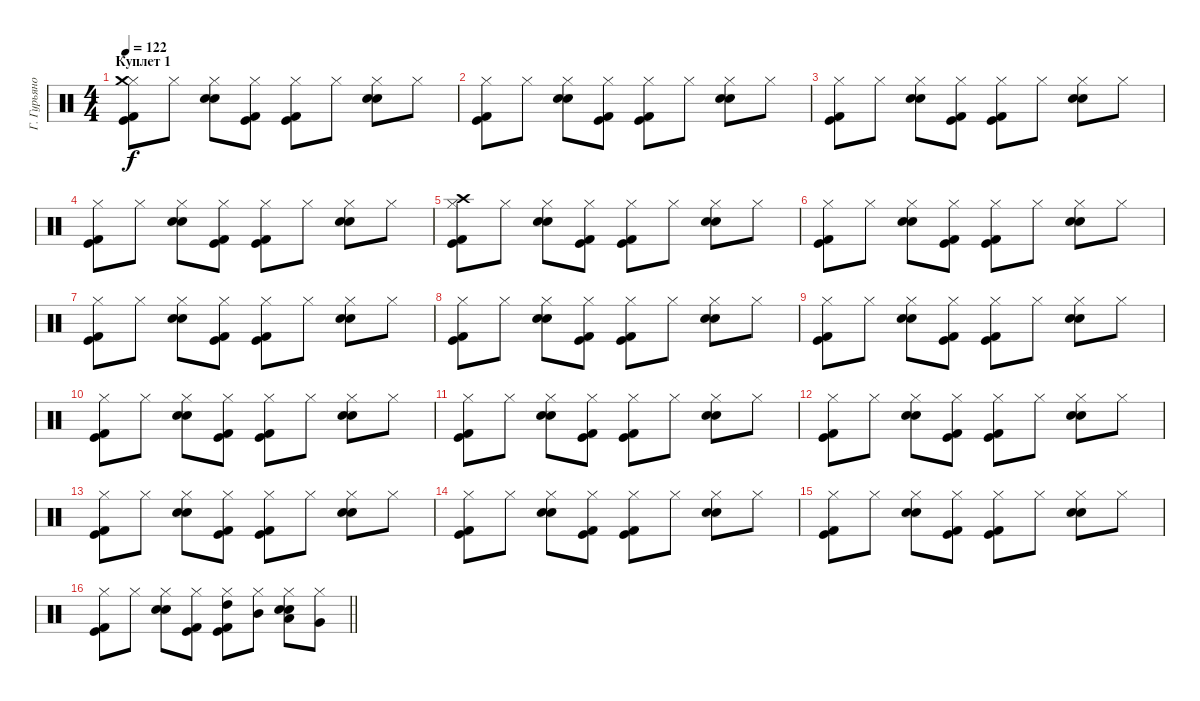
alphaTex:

\track ("Г. Гурьянов" "Г. Гурьяно") {instrument percussion}
\staff
\articulation defaults
\ts (4 4)
\section ("" "Куплет 1")
\tempo 122
\clef neutral
\ks c
("Hi-Hat (closed)" "Crash medium (hit)" "Kick (hit)" "Kick (hit) 2").8{dy f} "Hi-Hat (closed)".8 ("Hi-Hat (closed)" "Electric Snare (hit)" "Snare (hit) 2").8 ("Hi-Hat (closed)" "Kick (hit)" "Kick (hit) 2").8 ("Hi-Hat (closed)" "Kick (hit)" "Kick (hit) 2").8 "Hi-Hat (closed)".8 ("Hi-Hat (closed)" "Electric Snare (hit)" "Snare (hit) 2").8 "Hi-Hat (closed)".8 |
("Hi-Hat (closed)" "Kick (hit)" "Kick (hit) 2").8 "Hi-Hat (closed)".8 ("Hi-Hat (closed)" "Electric Snare (hit)" "Snare (hit) 2").8 ("Hi-Hat (closed)" "Kick (hit)" "Kick (hit) 2").8 ("Hi-Hat (closed)" "Kick (hit)" "Kick (hit) 2").8 "Hi-Hat (closed)".8 ("Hi-Hat (closed)" "Electric Snare (hit)" "Snare (hit) 2").8 "Hi-Hat (closed)".8 |
("Hi-Hat (closed)" "Kick (hit)" "Kick (hit) 2").8 "Hi-Hat (closed)".8 ("Hi-Hat (closed)" "Electric Snare (hit)" "Snare (hit) 2").8 ("Hi-Hat (closed)" "Kick (hit)" "Kick (hit) 2").8 ("Hi-Hat (closed)" "Kick (hit)" "Kick (hit) 2").8 "Hi-Hat (closed)".8 ("Hi-Hat (closed)" "Electric Snare (hit)" "Snare (hit) 2").8 "Hi-Hat (closed)".8 |
("Hi-Hat (closed)" "Kick (hit)" "Kick (hit) 2").8 "Hi-Hat (closed)".8 ("Hi-Hat (closed)" "Electric Snare (hit)" "Snare (hit) 2").8 ("Hi-Hat (closed)" "Kick (hit)" "Kick (hit) 2").8 ("Hi-Hat (closed)" "Kick (hit)" "Kick (hit) 2").8 "Hi-Hat (closed)".8 ("Hi-Hat (closed)" "Electric Snare (hit)" "Snare (hit) 2").8 "Hi-Hat (closed)".8 |
("Hi-Hat (closed)" "Crash high (hit)" "Kick (hit)" "Kick (hit) 2").8 "Hi-Hat (closed)".8 ("Hi-Hat (closed)" "Electric Snare (hit)" "Snare (hit) 2").8 ("Hi-Hat (closed)" "Kick (hit)" "Kick (hit) 2").8 ("Hi-Hat (closed)" "Kick (hit)" "Kick (hit) 2").8 "Hi-Hat (closed)".8 ("Hi-Hat (closed)" "Electric Snare (hit)" "Snare (hit) 2").8 "Hi-Hat (closed)".8 |
("Hi-Hat (closed)" "Kick (hit)" "Kick (hit) 2").8 "Hi-Hat (closed)".8 ("Hi-Hat (closed)" "Electric Snare (hit)" "Snare (hit) 2").8 ("Hi-Hat (closed)" "Kick (hit)" "Kick (hit) 2").8 ("Hi-Hat (closed)" "Kick (hit)" "Kick (hit) 2").8 "Hi-Hat (closed)".8 ("Hi-Hat (closed)" "Electric Snare (hit)" "Snare (hit) 2").8 "Hi-Hat (closed)".8 |
("Hi-Hat (closed)" "Kick (hit)" "Kick (hit) 2").8 "Hi-Hat (closed)".8 ("Hi-Hat (closed)" "Electric Snare (hit)" "Snare (hit) 2").8 ("Hi-Hat (closed)" "Kick (hit)" "Kick (hit) 2").8 ("Hi-Hat (closed)" "Kick (hit)" "Kick (hit) 2").8 "Hi-Hat (closed)".8 ("Hi-Hat (closed)" "Electric Snare (hit)" "Snare (hit) 2").8 "Hi-Hat (closed)".8 |
("Hi-Hat (closed)" "Kick (hit)" "Kick (hit) 2").8 "Hi-Hat (closed)".8 ("Hi-Hat (closed)" "Electric Snare (hit)" "Snare (hit) 2").8 ("Hi-Hat (closed)" "Kick (hit)" "Kick (hit) 2").8 ("Hi-Hat (closed)" "Kick (hit)" "Kick (hit) 2").8 "Hi-Hat (closed)".8 ("Hi-Hat (closed)" "Electric Snare (hit)" "Snare (hit) 2").8 "Hi-Hat (closed)".8 |
("Hi-Hat (closed)" "Kick (hit)" "Kick (hit) 2").8 "Hi-Hat (closed)".8 ("Hi-Hat (closed)" "Electric Snare (hit)" "Snare (hit) 2").8 ("Hi-Hat (closed)" "Kick (hit)" "Kick (hit) 2").8 ("Hi-Hat (closed)" "Kick (hit)" "Kick (hit) 2").8 "Hi-Hat (closed)".8 ("Hi-Hat (closed)" "Electric Snare (hit)" "Snare (hit) 2").8 "Hi-Hat (closed)".8 |
("Hi-Hat (closed)" "Kick (hit)" "Kick (hit) 2").8 "Hi-Hat (closed)".8 ("Hi-Hat (closed)" "Electric Snare (hit)" "Snare (hit) 2").8 ("Hi-Hat (closed)" "Kick (hit)" "Kick (hit) 2").8 ("Hi-Hat (closed)" "Kick (hit)" "Kick (hit) 2").8 "Hi-Hat (closed)".8 ("Hi-Hat (closed)" "Electric Snare (hit)" "Snare (hit) 2").8 "Hi-Hat (closed)".8 |
("Hi-Hat (closed)" "Kick (hit)" "Kick (hit) 2").8 "Hi-Hat (closed)".8 ("Hi-Hat (closed)" "Electric Snare (hit)" "Snare (hit) 2").8 ("Hi-Hat (closed)" "Kick (hit)" "Kick (hit) 2").8 ("Hi-Hat (closed)" "Kick (hit)" "Kick (hit) 2").8 "Hi-Hat (closed)".8 ("Hi-Hat (closed)" "Electric Snare (hit)" "Snare (hit) 2").8 "Hi-Hat (closed)".8 |
("Hi-Hat (closed)" "Kick (hit)" "Kick (hit) 2").8 "Hi-Hat (closed)".8 ("Hi-Hat (closed)" "Electric Snare (hit)" "Snare (hit) 2").8 ("Hi-Hat (closed)" "Kick (hit)" "Kick (hit) 2").8 ("Hi-Hat (closed)" "Kick (hit)" "Kick (hit) 2").8 "Hi-Hat (closed)".8 ("Hi-Hat (closed)" "Electric Snare (hit)" "Snare (hit) 2").8 "Hi-Hat (closed)".8 |
("Hi-Hat (closed)" "Kick (hit)" "Kick (hit) 2").8 "Hi-Hat (closed)".8 ("Hi-Hat (closed)" "Electric Snare (hit)" "Snare (hit) 2").8 ("Hi-Hat (closed)" "Kick (hit)" "Kick (hit) 2").8 ("Hi-Hat (closed)" "Kick (hit)" "Kick (hit) 2").8 "Hi-Hat (closed)".8 ("Hi-Hat (closed)" "Electric Snare (hit)" "Snare (hit) 2").8 "Hi-Hat (closed)".8 |
("Hi-Hat (closed)" "Kick (hit)" "Kick (hit) 2").8 "Hi-Hat (closed)".8 ("Hi-Hat (closed)" "Electric Snare (hit)" "Snare (hit) 2").8 ("Hi-Hat (closed)" "Kick (hit)" "Kick (hit) 2").8 ("Hi-Hat (closed)" "Kick (hit)" "Kick (hit) 2").8 "Hi-Hat (closed)".8 ("Hi-Hat (closed)" "Electric Snare (hit)" "Snare (hit) 2").8 "Hi-Hat (closed)".8 |
("Hi-Hat (closed)" "Kick (hit)" "Kick (hit) 2").8 "Hi-Hat (closed)".8 ("Hi-Hat (closed)" "Electric Snare (hit)" "Snare (hit) 2").8 ("Hi-Hat (closed)" "Kick (hit)" "Kick (hit) 2").8 ("Hi-Hat (closed)" "Kick (hit)" "Kick (hit) 2").8 "Hi-Hat (closed)".8 ("Hi-Hat (closed)" "Electric Snare (hit)" "Snare (hit) 2").8 "Hi-Hat (closed)".8 |
\barLineRight lightlight
("Hi-Hat (closed)" "Kick (hit)" "Kick (hit) 2").8 "Hi-Hat (closed)".8 ("Hi-Hat (closed)" "Electric Snare (hit)" "Snare (hit) 2").8 ("Hi-Hat (closed)" "Kick (hit)" "Kick (hit) 2").8 ("Hi-Hat (closed)" "High Tom (hit)" "Kick (hit)" "Kick (hit) 2").8 ("Hi-Hat (closed)" "Mid Tom (hit)").8 ("Hi-Hat (closed)" "Electric Snare (hit)" "Snare (hit) 2" "Low Tom (hit)").8 ("Hi-Hat (closed)" "Very Low Tom (hit)").8
